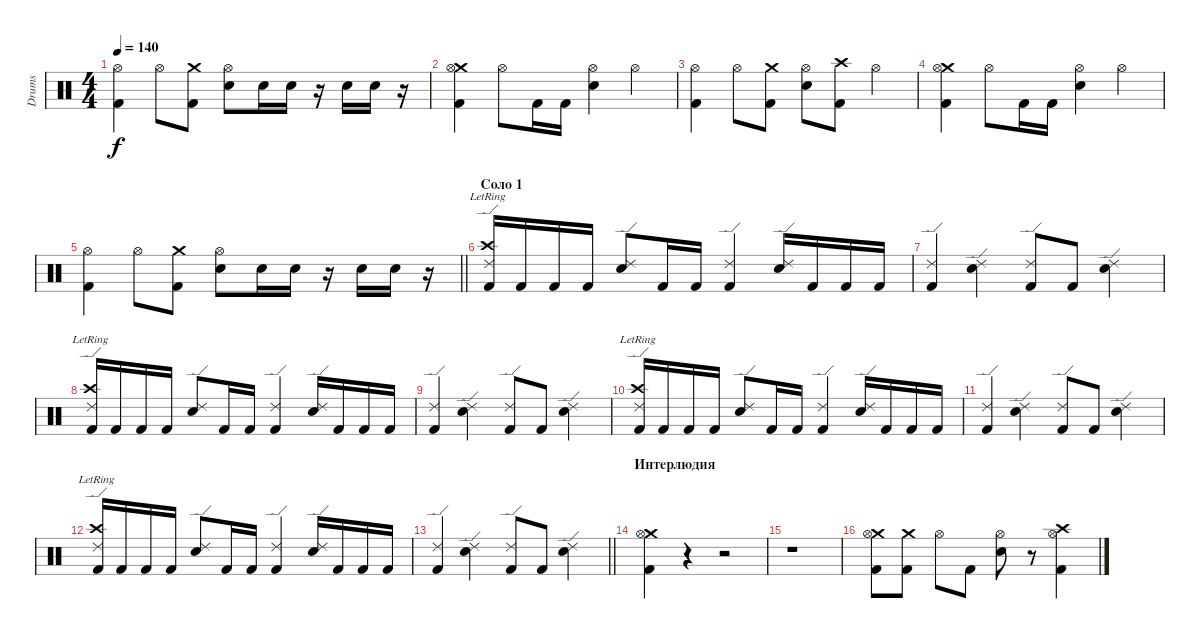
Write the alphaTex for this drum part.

\track ("Drums" "Drums") {instrument percussion}
\staff {score}
\articulation defaults
\ts (4 4)
\tempo 140
\clef neutral
\ks c
("Kick (hit) 2" "Hi-Hat (open)").4{dy f} "Hi-Hat (open)".8 ("Crash medium (hit)" "Kick (hit) 2").8 ("Electric Snare (hit)" "Hi-Hat (open)").8 "Electric Snare (hit)".16 "Electric Snare (hit)".16 r.16 "Electric Snare (hit)".16 "Electric Snare (hit)".16 r.16 |
("Crash medium (hit)" "Kick (hit) 2" "Hi-Hat (open)").4 "Hi-Hat (open)".8 "Kick (hit) 2".16 "Kick (hit) 2".16 ("Electric Snare (hit)" "Hi-Hat (open)").4 "Hi-Hat (open)".4 |
("Kick (hit) 2" "Hi-Hat (open)").4 "Hi-Hat (open)".8 ("Crash medium (hit)" "Kick (hit) 2").8 ("Electric Snare (hit)" "Hi-Hat (open)").8 ("Crash high (hit)" "Kick (hit) 2").8 "Hi-Hat (open)".4 |
("Crash medium (hit)" "Kick (hit) 2" "Hi-Hat (open)").4 "Hi-Hat (open)".8 "Kick (hit) 2".16 "Kick (hit) 2".16 ("Electric Snare (hit)" "Hi-Hat (open)").4 "Hi-Hat (open)".4 |
\barLineRight lightlight
("Kick (hit) 2" "Hi-Hat (open)").4 "Hi-Hat (open)".8 ("Crash medium (hit)" "Kick (hit) 2").8 ("Electric Snare (hit)" "Hi-Hat (open)").8 "Electric Snare (hit)".16 "Electric Snare (hit)".16 r.16 "Electric Snare (hit)".16 "Electric Snare (hit)".16 r.16 |
\section ("" "Соло 1")
("Crash high (hit)"{lr} "Ride (edge) 2"{lr} "Kick (hit) 2").16 "Kick (hit) 2".16 "Kick (hit) 2".16 "Kick (hit) 2".16 ("Ride (edge) 2" "Electric Snare (hit)").8 "Kick (hit) 2".16 "Kick (hit) 2".16 ("Ride (edge) 2" "Kick (hit) 2").4 ("Ride (edge) 2" "Electric Snare (hit)").16 "Kick (hit) 2".16 "Kick (hit) 2".16 "Kick (hit) 2".16 |
("Ride (edge) 2" "Kick (hit) 2").4 ("Ride (edge) 2" "Electric Snare (hit)").4 ("Ride (edge) 2" "Kick (hit) 2").8 "Kick (hit) 2".8 ("Ride (edge) 2" "Electric Snare (hit)").4 |
("Crash high (hit)"{lr} "Ride (edge) 2"{lr} "Kick (hit) 2").16 "Kick (hit) 2".16 "Kick (hit) 2".16 "Kick (hit) 2".16 ("Ride (edge) 2" "Electric Snare (hit)").8 "Kick (hit) 2".16 "Kick (hit) 2".16 ("Ride (edge) 2" "Kick (hit) 2").4 ("Ride (edge) 2" "Electric Snare (hit)").16 "Kick (hit) 2".16 "Kick (hit) 2".16 "Kick (hit) 2".16 |
("Ride (edge) 2" "Kick (hit) 2").4 ("Ride (edge) 2" "Electric Snare (hit)").4 ("Ride (edge) 2" "Kick (hit) 2").8 "Kick (hit) 2".8 ("Ride (edge) 2" "Electric Snare (hit)").4 |
("Crash high (hit)"{lr} "Ride (edge) 2"{lr} "Kick (hit) 2").16 "Kick (hit) 2".16 "Kick (hit) 2".16 "Kick (hit) 2".16 ("Ride (edge) 2" "Electric Snare (hit)").8 "Kick (hit) 2".16 "Kick (hit) 2".16 ("Ride (edge) 2" "Kick (hit) 2").4 ("Ride (edge) 2" "Electric Snare (hit)").16 "Kick (hit) 2".16 "Kick (hit) 2".16 "Kick (hit) 2".16 |
("Ride (edge) 2" "Kick (hit) 2").4 ("Ride (edge) 2" "Electric Snare (hit)").4 ("Ride (edge) 2" "Kick (hit) 2").8 "Kick (hit) 2".8 ("Ride (edge) 2" "Electric Snare (hit)").4 |
("Crash high (hit)"{lr} "Ride (edge) 2"{lr} "Kick (hit) 2").16 "Kick (hit) 2".16 "Kick (hit) 2".16 "Kick (hit) 2".16 ("Ride (edge) 2" "Electric Snare (hit)").8 "Kick (hit) 2".16 "Kick (hit) 2".16 ("Ride (edge) 2" "Kick (hit) 2").4 ("Ride (edge) 2" "Electric Snare (hit)").16 "Kick (hit) 2".16 "Kick (hit) 2".16 "Kick (hit) 2".16 |
\barLineRight lightlight
("Ride (edge) 2" "Kick (hit) 2").4 ("Ride (edge) 2" "Electric Snare (hit)").4 ("Ride (edge) 2" "Kick (hit) 2").8 "Kick (hit) 2".8 ("Ride (edge) 2" "Electric Snare (hit)").4 |
\section ("" "Интерлюдия")
("Crash medium (hit)" "Kick (hit) 2" "Hi-Hat (open)").4 r.4 r.2 |
r.1 |
("Crash medium (hit)" "Kick (hit) 2" "Hi-Hat (open)").8 ("Crash medium (hit)" "Kick (hit) 2").8 "Hi-Hat (open)".8 "Kick (hit) 2".8 ("Electric Snare (hit)" "Hi-Hat (open)").8 r.8 ("Crash high (hit)" "Kick (hit) 2" "Hi-Hat (open)").4
